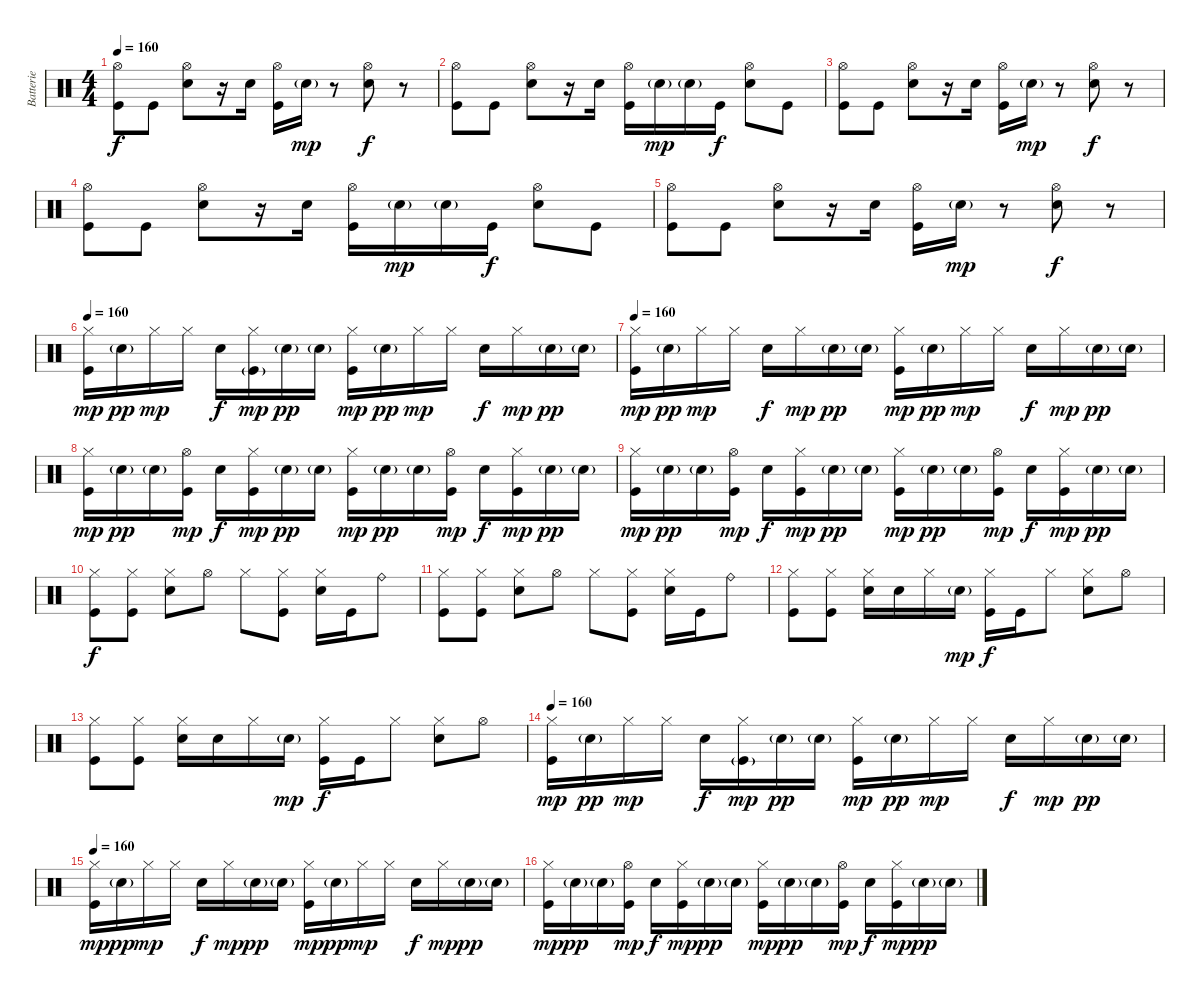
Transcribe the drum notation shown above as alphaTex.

\track ("Batterie" "Batterie") {instrument percussion}
\staff {score}
\articulation defaults
\ts (4 4)
\tempo 160
\clef neutral
\ks c
("Hi-Hat (open)" "Kick (hit)").8{dy f} "Kick (hit)".8 ("Hi-Hat (open)" "Electric Snare (hit)").8 r.16 "Electric Snare (hit)".16 ("Hi-Hat (open)" "Kick (hit)").16 "Electric Snare (hit)"{g}.16{dy mp} r.8 ("Hi-Hat (open)" "Electric Snare (hit)").8{dy f} r.8 |
("Hi-Hat (open)" "Kick (hit)").8 "Kick (hit)".8 ("Hi-Hat (open)" "Electric Snare (hit)").8 r.16 "Electric Snare (hit)".16 ("Hi-Hat (open)" "Kick (hit)").16 "Electric Snare (hit)"{g}.16{dy mp} "Electric Snare (hit)"{g}.16 "Kick (hit)".16{dy f} ("Hi-Hat (open)" "Electric Snare (hit)").8 "Kick (hit)".8 |
("Hi-Hat (open)" "Kick (hit)").8 "Kick (hit)".8 ("Hi-Hat (open)" "Electric Snare (hit)").8 r.16 "Electric Snare (hit)".16 ("Hi-Hat (open)" "Kick (hit)").16 "Electric Snare (hit)"{g}.16{dy mp} r.8 ("Hi-Hat (open)" "Electric Snare (hit)").8{dy f} r.8 |
("Hi-Hat (open)" "Kick (hit)").8 "Kick (hit)".8 ("Hi-Hat (open)" "Electric Snare (hit)").8 r.16 "Electric Snare (hit)".16 ("Hi-Hat (open)" "Kick (hit)").16 "Electric Snare (hit)"{g}.16{dy mp} "Electric Snare (hit)"{g}.16 "Kick (hit)".16{dy f} ("Hi-Hat (open)" "Electric Snare (hit)").8 "Kick (hit)".8 |
("Hi-Hat (open)" "Kick (hit)").8 "Kick (hit)".8 ("Hi-Hat (open)" "Electric Snare (hit)").8 r.16 "Electric Snare (hit)".16 ("Hi-Hat (open)" "Kick (hit)").16 "Electric Snare (hit)"{g}.16{dy mp} r.8 ("Hi-Hat (open)" "Electric Snare (hit)").8{dy f} r.8 |
\tempo 160
("Hi-Hat (closed)" "Kick (hit)").16{dy mp} "Electric Snare (hit)"{g}.16{dy pp} "Hi-Hat (closed)".16{dy mp} "Hi-Hat (closed)".16 "Electric Snare (hit)".16{dy f} ("Hi-Hat (closed)" "Kick (hit)"{g}).16{dy mp} "Electric Snare (hit)"{g}.16{dy pp} "Electric Snare (hit)"{g}.16 ("Hi-Hat (closed)" "Kick (hit)").16{dy mp} "Electric Snare (hit)"{g}.16{dy pp} "Hi-Hat (closed)".16{dy mp} "Hi-Hat (closed)".16 "Electric Snare (hit)".16{dy f} "Hi-Hat (closed)".16{dy mp} "Electric Snare (hit)"{g}.16{dy pp} "Electric Snare (hit)"{g}.16 |
\tempo 160
("Hi-Hat (closed)" "Kick (hit)").16{dy mp} "Electric Snare (hit)"{g}.16{dy pp} "Hi-Hat (closed)".16{dy mp} "Hi-Hat (closed)".16 "Electric Snare (hit)".16{dy f} "Hi-Hat (closed)".16{dy mp} "Electric Snare (hit)"{g}.16{dy pp} "Electric Snare (hit)"{g}.16 ("Hi-Hat (closed)" "Kick (hit)").16{dy mp} "Electric Snare (hit)"{g}.16{dy pp} "Hi-Hat (closed)".16{dy mp} "Hi-Hat (closed)".16 "Electric Snare (hit)".16{dy f} "Hi-Hat (closed)".16{dy mp} "Electric Snare (hit)"{g}.16{dy pp} "Electric Snare (hit)"{g}.16 |
("Hi-Hat (closed)" "Kick (hit)").16{dy mp} "Electric Snare (hit)"{g}.16{dy pp} "Electric Snare (hit)"{g}.16 ("Hi-Hat (open)" "Kick (hit)").16{dy mp} "Electric Snare (hit)".16{dy f} ("Hi-Hat (closed)" "Kick (hit)").16{dy mp} "Electric Snare (hit)"{g}.16{dy pp} "Electric Snare (hit)"{g}.16 ("Hi-Hat (closed)" "Kick (hit)").16{dy mp} "Electric Snare (hit)"{g}.16{dy pp} "Electric Snare (hit)"{g}.16 ("Hi-Hat (open)" "Kick (hit)").16{dy mp} "Electric Snare (hit)".16{dy f} ("Hi-Hat (closed)" "Kick (hit)").16{dy mp} "Electric Snare (hit)"{g}.16{dy pp} "Electric Snare (hit)"{g}.16 |
("Hi-Hat (closed)" "Kick (hit)").16{dy mp} "Electric Snare (hit)"{g}.16{dy pp} "Electric Snare (hit)"{g}.16 ("Hi-Hat (open)" "Kick (hit)").16{dy mp} "Electric Snare (hit)".16{dy f} ("Hi-Hat (closed)" "Kick (hit)").16{dy mp} "Electric Snare (hit)"{g}.16{dy pp} "Electric Snare (hit)"{g}.16 ("Hi-Hat (closed)" "Kick (hit)").16{dy mp} "Electric Snare (hit)"{g}.16{dy pp} "Electric Snare (hit)"{g}.16 ("Hi-Hat (open)" "Kick (hit)").16{dy mp} "Electric Snare (hit)".16{dy f} ("Hi-Hat (closed)" "Kick (hit)").16{dy mp} "Electric Snare (hit)"{g}.16{dy pp} "Electric Snare (hit)"{g}.16 |
("Hi-Hat (closed)" "Kick (hit)").8{dy f} ("Hi-Hat (closed)" "Kick (hit)").8 ("Hi-Hat (closed)" "Electric Snare (hit)").8 "Hi-Hat (open)".8 "Hi-Hat (closed)".8 ("Hi-Hat (closed)" "Kick (hit)").8 ("Hi-Hat (closed)" "Electric Snare (hit)").16 "Kick (hit)".16 "Ride (bell)".8 |
("Hi-Hat (closed)" "Kick (hit)").8 ("Hi-Hat (closed)" "Kick (hit)").8 ("Hi-Hat (closed)" "Electric Snare (hit)").8 "Hi-Hat (open)".8 "Hi-Hat (closed)".8 ("Hi-Hat (closed)" "Kick (hit)").8 ("Hi-Hat (closed)" "Electric Snare (hit)").16 "Kick (hit)".16 "Ride (bell)".8 |
("Hi-Hat (closed)" "Kick (hit)").8 ("Hi-Hat (closed)" "Kick (hit)").8 ("Hi-Hat (closed)" "Electric Snare (hit)").16 "Electric Snare (hit)".16 "Hi-Hat (closed)".16 "Electric Snare (hit)"{g}.16{dy mp} ("Hi-Hat (closed)" "Kick (hit)").16{dy f} "Kick (hit)".16 "Hi-Hat (closed)".8 ("Hi-Hat (closed)" "Electric Snare (hit)").8 "Hi-Hat (open)".8 |
("Hi-Hat (closed)" "Kick (hit)").8 ("Hi-Hat (closed)" "Kick (hit)").8 ("Hi-Hat (closed)" "Electric Snare (hit)").16 "Electric Snare (hit)".16 "Hi-Hat (closed)".16 "Electric Snare (hit)"{g}.16{dy mp} ("Hi-Hat (closed)" "Kick (hit)").16{dy f} "Kick (hit)".16 "Hi-Hat (closed)".8 ("Hi-Hat (closed)" "Electric Snare (hit)").8 "Hi-Hat (open)".8 |
\tempo 160
("Hi-Hat (closed)" "Kick (hit)").16{dy mp} "Electric Snare (hit)"{g}.16{dy pp} "Hi-Hat (closed)".16{dy mp} "Hi-Hat (closed)".16 "Electric Snare (hit)".16{dy f} ("Hi-Hat (closed)" "Kick (hit)"{g}).16{dy mp} "Electric Snare (hit)"{g}.16{dy pp} "Electric Snare (hit)"{g}.16 ("Hi-Hat (closed)" "Kick (hit)").16{dy mp} "Electric Snare (hit)"{g}.16{dy pp} "Hi-Hat (closed)".16{dy mp} "Hi-Hat (closed)".16 "Electric Snare (hit)".16{dy f} "Hi-Hat (closed)".16{dy mp} "Electric Snare (hit)"{g}.16{dy pp} "Electric Snare (hit)"{g}.16 |
\tempo 160
("Hi-Hat (closed)" "Kick (hit)").16{dy mp} "Electric Snare (hit)"{g}.16{dy pp} "Hi-Hat (closed)".16{dy mp} "Hi-Hat (closed)".16 "Electric Snare (hit)".16{dy f} "Hi-Hat (closed)".16{dy mp} "Electric Snare (hit)"{g}.16{dy pp} "Electric Snare (hit)"{g}.16 ("Hi-Hat (closed)" "Kick (hit)").16{dy mp} "Electric Snare (hit)"{g}.16{dy pp} "Hi-Hat (closed)".16{dy mp} "Hi-Hat (closed)".16 "Electric Snare (hit)".16{dy f} "Hi-Hat (closed)".16{dy mp} "Electric Snare (hit)"{g}.16{dy pp} "Electric Snare (hit)"{g}.16 |
("Hi-Hat (closed)" "Kick (hit)").16{dy mp} "Electric Snare (hit)"{g}.16{dy pp} "Electric Snare (hit)"{g}.16 ("Hi-Hat (open)" "Kick (hit)").16{dy mp} "Electric Snare (hit)".16{dy f} ("Hi-Hat (closed)" "Kick (hit)").16{dy mp} "Electric Snare (hit)"{g}.16{dy pp} "Electric Snare (hit)"{g}.16 ("Hi-Hat (closed)" "Kick (hit)").16{dy mp} "Electric Snare (hit)"{g}.16{dy pp} "Electric Snare (hit)"{g}.16 ("Hi-Hat (open)" "Kick (hit)").16{dy mp} "Electric Snare (hit)".16{dy f} ("Hi-Hat (closed)" "Kick (hit)").16{dy mp} "Electric Snare (hit)"{g}.16{dy pp} "Electric Snare (hit)"{g}.16
